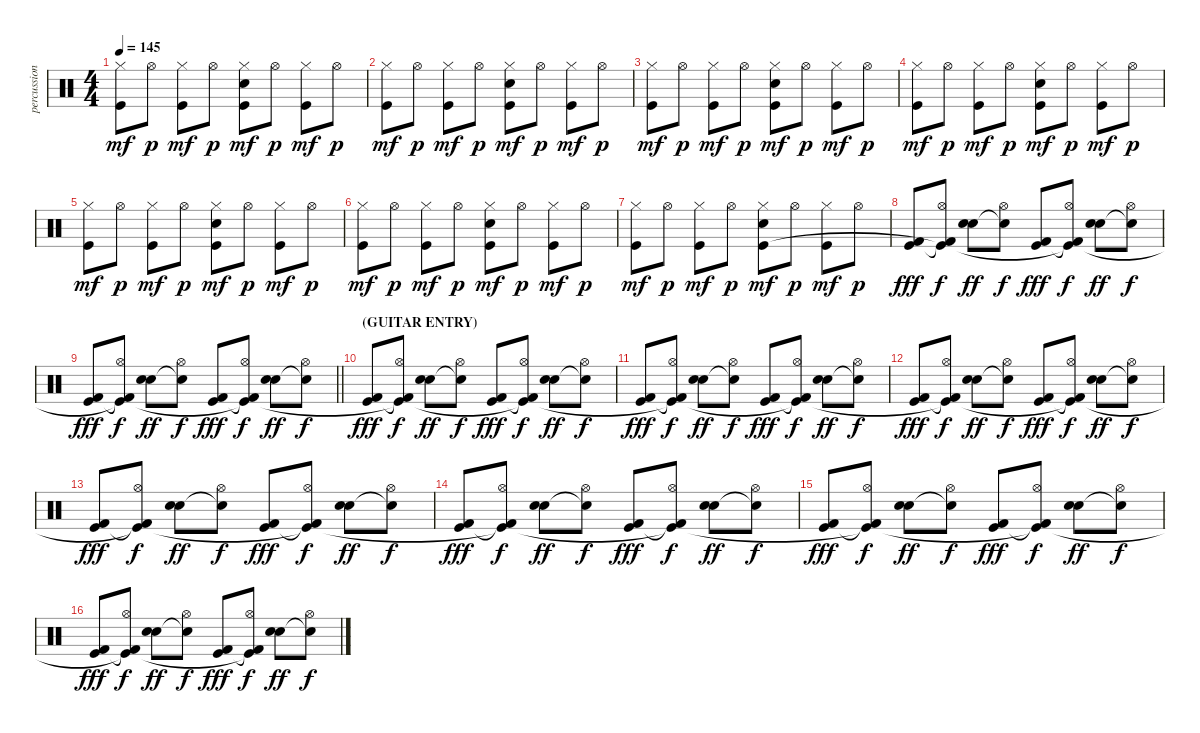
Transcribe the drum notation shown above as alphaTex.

\track ("percussion" "percussion") {instrument percussion}
\staff {score}
\articulation defaults
\ts (4 4)
\tempo 145
\clef neutral
\ks c
("Hi-Hat (closed)" "Kick (hit)").8{dy mf} "Hi-Hat (open)".8{dy p} ("Hi-Hat (closed)" "Kick (hit)").8{dy mf} "Hi-Hat (open)".8{dy p} ("Hi-Hat (closed)" "Electric Snare (hit)" "Kick (hit)").8{dy mf} "Hi-Hat (open)".8{dy p} ("Hi-Hat (closed)" "Kick (hit)").8{dy mf} "Hi-Hat (open)".8{dy p} |
("Hi-Hat (closed)" "Kick (hit)").8{dy mf} "Hi-Hat (open)".8{dy p} ("Hi-Hat (closed)" "Kick (hit)").8{dy mf} "Hi-Hat (open)".8{dy p} ("Hi-Hat (closed)" "Electric Snare (hit)" "Kick (hit)").8{dy mf} "Hi-Hat (open)".8{dy p} ("Hi-Hat (closed)" "Kick (hit)").8{dy mf} "Hi-Hat (open)".8{dy p} |
("Hi-Hat (closed)" "Kick (hit)").8{dy mf} "Hi-Hat (open)".8{dy p} ("Hi-Hat (closed)" "Kick (hit)").8{dy mf} "Hi-Hat (open)".8{dy p} ("Hi-Hat (closed)" "Electric Snare (hit)" "Kick (hit)").8{dy mf} "Hi-Hat (open)".8{dy p} ("Hi-Hat (closed)" "Kick (hit)").8{dy mf} "Hi-Hat (open)".8{dy p} |
("Hi-Hat (closed)" "Kick (hit)").8{dy mf} "Hi-Hat (open)".8{dy p} ("Hi-Hat (closed)" "Kick (hit)").8{dy mf} "Hi-Hat (open)".8{dy p} ("Hi-Hat (closed)" "Electric Snare (hit)" "Kick (hit)").8{dy mf} "Hi-Hat (open)".8{dy p} ("Hi-Hat (closed)" "Kick (hit)").8{dy mf} "Hi-Hat (open)".8{dy p} |
("Hi-Hat (closed)" "Kick (hit)").8{dy mf} "Hi-Hat (open)".8{dy p} ("Hi-Hat (closed)" "Kick (hit)").8{dy mf} "Hi-Hat (open)".8{dy p} ("Hi-Hat (closed)" "Electric Snare (hit)" "Kick (hit)").8{dy mf} "Hi-Hat (open)".8{dy p} ("Hi-Hat (closed)" "Kick (hit)").8{dy mf} "Hi-Hat (open)".8{dy p} |
("Hi-Hat (closed)" "Kick (hit)").8{dy mf} "Hi-Hat (open)".8{dy p} ("Hi-Hat (closed)" "Kick (hit)").8{dy mf} "Hi-Hat (open)".8{dy p} ("Hi-Hat (closed)" "Electric Snare (hit)" "Kick (hit)").8{dy mf} "Hi-Hat (open)".8{dy p} ("Hi-Hat (closed)" "Kick (hit)").8{dy mf} "Hi-Hat (open)".8{dy p} |
("Hi-Hat (closed)" "Kick (hit)").8{dy mf} "Hi-Hat (open)".8{dy p} ("Hi-Hat (closed)" "Kick (hit)").8{dy mf} "Hi-Hat (open)".8{dy p} ("Hi-Hat (closed)" "Electric Snare (hit)" "Kick (hit)").8{dy mf} "Hi-Hat (open)".8{dy p} ("Hi-Hat (closed)" "Kick (hit)").8{dy mf} "Hi-Hat (open)".8{dy p} |
("Kick (hit) 2" "Kick (hit)").8{dy fff} ("Hi-Hat (open)" "Kick (hit) 2"{t} "Kick (hit)"{t}).8{dy f} ("Snare (hit) 2" "Electric Snare (hit)").8{dy ff} ("Hi-Hat (open)" "Electric Snare (hit)"{t}).8{dy f} ("Kick (hit) 2" "Kick (hit)").8{dy fff} ("Hi-Hat (open)" "Kick (hit) 2"{t} "Kick (hit)"{t}).8{dy f} ("Electric Snare (hit)" "Snare (hit) 2").8{dy ff} ("Hi-Hat (open)" "Electric Snare (hit)"{t}).8{dy f} |
\barLineRight lightlight
("Kick (hit) 2" "Kick (hit)").8{dy fff} ("Hi-Hat (open)" "Kick (hit) 2"{t} "Kick (hit)"{t}).8{dy f} ("Snare (hit) 2" "Electric Snare (hit)").8{dy ff} ("Hi-Hat (open)" "Electric Snare (hit)"{t}).8{dy f} ("Kick (hit) 2" "Kick (hit)").8{dy fff} ("Hi-Hat (open)" "Kick (hit) 2"{t} "Kick (hit)"{t}).8{dy f} ("Electric Snare (hit)" "Snare (hit) 2").8{dy ff} ("Hi-Hat (open)" "Electric Snare (hit)"{t}).8{dy f} |
\section ("" "(GUITAR ENTRY)")
("Kick (hit) 2" "Kick (hit)").8{dy fff} ("Hi-Hat (open)" "Kick (hit) 2"{t} "Kick (hit)"{t}).8{dy f} ("Snare (hit) 2" "Electric Snare (hit)").8{dy ff} ("Hi-Hat (open)" "Electric Snare (hit)"{t}).8{dy f} ("Kick (hit) 2" "Kick (hit)").8{dy fff} ("Hi-Hat (open)" "Kick (hit) 2"{t} "Kick (hit)"{t}).8{dy f} ("Electric Snare (hit)" "Snare (hit) 2").8{dy ff} ("Hi-Hat (open)" "Electric Snare (hit)"{t}).8{dy f} |
("Kick (hit) 2" "Kick (hit)").8{dy fff} ("Hi-Hat (open)" "Kick (hit) 2"{t} "Kick (hit)"{t}).8{dy f} ("Snare (hit) 2" "Electric Snare (hit)").8{dy ff} ("Hi-Hat (open)" "Electric Snare (hit)"{t}).8{dy f} ("Kick (hit) 2" "Kick (hit)").8{dy fff} ("Hi-Hat (open)" "Kick (hit) 2"{t} "Kick (hit)"{t}).8{dy f} ("Electric Snare (hit)" "Snare (hit) 2").8{dy ff} ("Hi-Hat (open)" "Electric Snare (hit)"{t}).8{dy f} |
("Kick (hit) 2" "Kick (hit)").8{dy fff} ("Hi-Hat (open)" "Kick (hit) 2"{t} "Kick (hit)"{t}).8{dy f} ("Snare (hit) 2" "Electric Snare (hit)").8{dy ff} ("Hi-Hat (open)" "Electric Snare (hit)"{t}).8{dy f} ("Kick (hit) 2" "Kick (hit)").8{dy fff} ("Hi-Hat (open)" "Kick (hit) 2"{t} "Kick (hit)"{t}).8{dy f} ("Electric Snare (hit)" "Snare (hit) 2").8{dy ff} ("Hi-Hat (open)" "Electric Snare (hit)"{t}).8{dy f} |
("Kick (hit) 2" "Kick (hit)").8{dy fff} ("Hi-Hat (open)" "Kick (hit) 2"{t} "Kick (hit)"{t}).8{dy f} ("Snare (hit) 2" "Electric Snare (hit)").8{dy ff} ("Hi-Hat (open)" "Electric Snare (hit)"{t}).8{dy f} ("Kick (hit) 2" "Kick (hit)").8{dy fff} ("Hi-Hat (open)" "Kick (hit) 2"{t} "Kick (hit)"{t}).8{dy f} ("Electric Snare (hit)" "Snare (hit) 2").8{dy ff} ("Hi-Hat (open)" "Electric Snare (hit)"{t}).8{dy f} |
("Kick (hit) 2" "Kick (hit)").8{dy fff} ("Hi-Hat (open)" "Kick (hit) 2"{t} "Kick (hit)"{t}).8{dy f} ("Snare (hit) 2" "Electric Snare (hit)").8{dy ff} ("Hi-Hat (open)" "Electric Snare (hit)"{t}).8{dy f} ("Kick (hit) 2" "Kick (hit)").8{dy fff} ("Hi-Hat (open)" "Kick (hit) 2"{t} "Kick (hit)"{t}).8{dy f} ("Electric Snare (hit)" "Snare (hit) 2").8{dy ff} ("Hi-Hat (open)" "Electric Snare (hit)"{t}).8{dy f} |
("Kick (hit) 2" "Kick (hit)").8{dy fff} ("Hi-Hat (open)" "Kick (hit) 2"{t} "Kick (hit)"{t}).8{dy f} ("Snare (hit) 2" "Electric Snare (hit)").8{dy ff} ("Hi-Hat (open)" "Electric Snare (hit)"{t}).8{dy f} ("Kick (hit) 2" "Kick (hit)").8{dy fff} ("Hi-Hat (open)" "Kick (hit) 2"{t} "Kick (hit)"{t}).8{dy f} ("Electric Snare (hit)" "Snare (hit) 2").8{dy ff} ("Hi-Hat (open)" "Electric Snare (hit)"{t}).8{dy f} |
("Kick (hit) 2" "Kick (hit)").8{dy fff} ("Hi-Hat (open)" "Kick (hit) 2"{t} "Kick (hit)"{t}).8{dy f} ("Snare (hit) 2" "Electric Snare (hit)").8{dy ff} ("Hi-Hat (open)" "Electric Snare (hit)"{t}).8{dy f} ("Kick (hit) 2" "Kick (hit)").8{dy fff} ("Hi-Hat (open)" "Kick (hit) 2"{t} "Kick (hit)"{t}).8{dy f} ("Electric Snare (hit)" "Snare (hit) 2").8{dy ff} ("Hi-Hat (open)" "Electric Snare (hit)"{t}).8{dy f}
